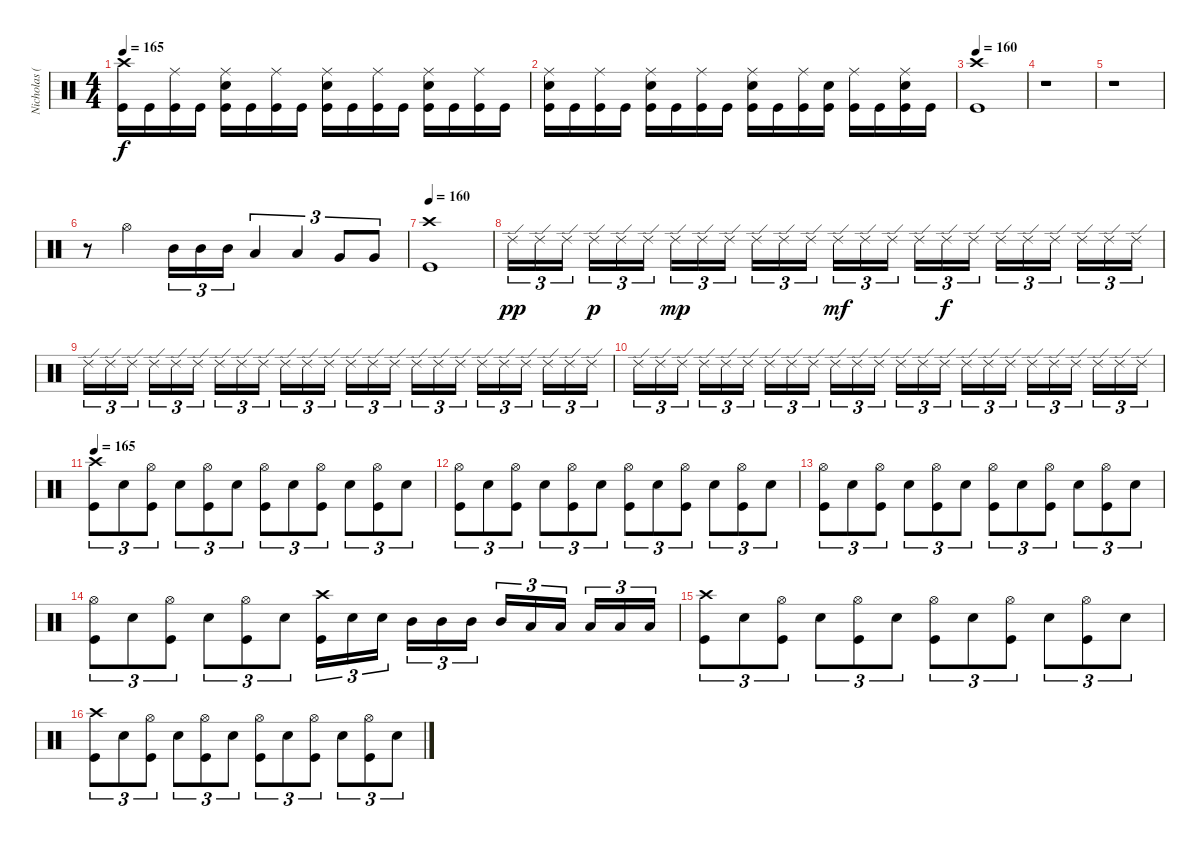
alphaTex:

\track ("Nicholas (Drums)" "Nicholas (") {instrument percussion}
\staff {score}
\articulation defaults
\ts (4 4)
\tempo 165
\clef neutral
\ks c
("Crash high (hit)" "Kick (hit)").16{dy f} "Kick (hit)".16 ("Ride (middle)" "Kick (hit)").16 "Kick (hit)".16 ("Ride (middle)" "Electric Snare (hit)" "Kick (hit)").16 "Kick (hit)".16 ("Ride (middle)" "Kick (hit)").16 "Kick (hit)".16 ("Ride (middle)" "Electric Snare (hit)" "Kick (hit)").16 "Kick (hit)".16 ("Ride (middle)" "Kick (hit)").16 "Kick (hit)".16 ("Ride (middle)" "Electric Snare (hit)" "Kick (hit)").16 "Kick (hit)".16 ("Ride (middle)" "Kick (hit)").16 "Kick (hit)".16 |
("Ride (middle)" "Electric Snare (hit)" "Kick (hit)").16 "Kick (hit)".16 ("Ride (middle)" "Kick (hit)").16 "Kick (hit)".16 ("Ride (middle)" "Electric Snare (hit)" "Kick (hit)").16 "Kick (hit)".16 ("Ride (middle)" "Kick (hit)").16 "Kick (hit)".16 ("Ride (middle)" "Electric Snare (hit)" "Kick (hit)").16 "Kick (hit)".16 ("Ride (middle)" "Kick (hit)").16 ("Electric Snare (hit)" "Kick (hit)").16 ("Ride (middle)" "Kick (hit)").16 "Kick (hit)".16 ("Ride (middle)" "Electric Snare (hit)" "Kick (hit)").16 "Kick (hit)".16 |
\tempo 160
("Crash high (hit)" "Kick (hit)").1 |
r.1 |
r.1 |
r.8 "Hi-Hat (open)".4 "Mid Tom (hit)".16{tu (3 2)} "Mid Tom (hit)".16{tu (3 2)} "Mid Tom (hit)".16{tu (3 2)} "Low Tom (hit)".4{tu (3 2)} "Low Tom (hit)".4{tu (3 2)} "Very Low Tom (hit)".8{tu (3 2)} "Very Low Tom (hit)".8{tu (3 2)} |
\tempo 160
("Crash high (hit)" "Kick (hit)").1 |
"Ride (edge) 2".16{tu (3 2) dy pp} "Ride (edge) 2".16{tu (3 2)} "Ride (edge) 2".16{tu (3 2)} "Ride (edge) 2".16{tu (3 2) dy p} "Ride (edge) 2".16{tu (3 2)} "Ride (edge) 2".16{tu (3 2)} "Ride (edge) 2".16{tu (3 2) dy mp} "Ride (edge) 2".16{tu (3 2)} "Ride (edge) 2".16{tu (3 2)} "Ride (edge) 2".16{tu (3 2)} "Ride (edge) 2".16{tu (3 2)} "Ride (edge) 2".16{tu (3 2)} "Ride (edge) 2".16{tu (3 2) dy mf} "Ride (edge) 2".16{tu (3 2)} "Ride (edge) 2".16{tu (3 2)} "Ride (edge) 2".16{tu (3 2)} "Ride (edge) 2".16{tu (3 2) dy f} "Ride (edge) 2".16{tu (3 2)} "Ride (edge) 2".16{tu (3 2)} "Ride (edge) 2".16{tu (3 2)} "Ride (edge) 2".16{tu (3 2)} "Ride (edge) 2".16{tu (3 2)} "Ride (edge) 2".16{tu (3 2)} "Ride (edge) 2".16{tu (3 2)} |
"Ride (edge) 2".16{tu (3 2)} "Ride (edge) 2".16{tu (3 2)} "Ride (edge) 2".16{tu (3 2)} "Ride (edge) 2".16{tu (3 2)} "Ride (edge) 2".16{tu (3 2)} "Ride (edge) 2".16{tu (3 2)} "Ride (edge) 2".16{tu (3 2)} "Ride (edge) 2".16{tu (3 2)} "Ride (edge) 2".16{tu (3 2)} "Ride (edge) 2".16{tu (3 2)} "Ride (edge) 2".16{tu (3 2)} "Ride (edge) 2".16{tu (3 2)} "Ride (edge) 2".16{tu (3 2)} "Ride (edge) 2".16{tu (3 2)} "Ride (edge) 2".16{tu (3 2)} "Ride (edge) 2".16{tu (3 2)} "Ride (edge) 2".16{tu (3 2)} "Ride (edge) 2".16{tu (3 2)} "Ride (edge) 2".16{tu (3 2)} "Ride (edge) 2".16{tu (3 2)} "Ride (edge) 2".16{tu (3 2)} "Ride (edge) 2".16{tu (3 2)} "Ride (edge) 2".16{tu (3 2)} "Ride (edge) 2".16{tu (3 2)} |
"Ride (edge) 2".16{tu (3 2)} "Ride (edge) 2".16{tu (3 2)} "Ride (edge) 2".16{tu (3 2)} "Ride (edge) 2".16{tu (3 2)} "Ride (edge) 2".16{tu (3 2)} "Ride (edge) 2".16{tu (3 2)} "Ride (edge) 2".16{tu (3 2)} "Ride (edge) 2".16{tu (3 2)} "Ride (edge) 2".16{tu (3 2)} "Ride (edge) 2".16{tu (3 2)} "Ride (edge) 2".16{tu (3 2)} "Ride (edge) 2".16{tu (3 2)} "Ride (edge) 2".16{tu (3 2)} "Ride (edge) 2".16{tu (3 2)} "Ride (edge) 2".16{tu (3 2)} "Ride (edge) 2".16{tu (3 2)} "Ride (edge) 2".16{tu (3 2)} "Ride (edge) 2".16{tu (3 2)} "Ride (edge) 2".16{tu (3 2)} "Ride (edge) 2".16{tu (3 2)} "Ride (edge) 2".16{tu (3 2)} "Ride (edge) 2".16{tu (3 2)} "Ride (edge) 2".16{tu (3 2)} "Ride (edge) 2".16{tu (3 2)} |
\tempo 165
("Crash high (hit)" "Kick (hit)").8{tu (3 2)} "Electric Snare (hit)".8{tu (3 2)} ("Hi-Hat (open)" "Kick (hit)").8{tu (3 2)} "Electric Snare (hit)".8{tu (3 2)} ("Hi-Hat (open)" "Kick (hit)").8{tu (3 2)} "Electric Snare (hit)".8{tu (3 2)} ("Hi-Hat (open)" "Kick (hit)").8{tu (3 2)} "Electric Snare (hit)".8{tu (3 2)} ("Hi-Hat (open)" "Kick (hit)").8{tu (3 2)} "Electric Snare (hit)".8{tu (3 2)} ("Hi-Hat (open)" "Kick (hit)").8{tu (3 2)} "Electric Snare (hit)".8{tu (3 2)} |
("Hi-Hat (open)" "Kick (hit)").8{tu (3 2)} "Electric Snare (hit)".8{tu (3 2)} ("Hi-Hat (open)" "Kick (hit)").8{tu (3 2)} "Electric Snare (hit)".8{tu (3 2)} ("Hi-Hat (open)" "Kick (hit)").8{tu (3 2)} "Electric Snare (hit)".8{tu (3 2)} ("Hi-Hat (open)" "Kick (hit)").8{tu (3 2)} "Electric Snare (hit)".8{tu (3 2)} ("Hi-Hat (open)" "Kick (hit)").8{tu (3 2)} "Electric Snare (hit)".8{tu (3 2)} ("Hi-Hat (open)" "Kick (hit)").8{tu (3 2)} "Electric Snare (hit)".8{tu (3 2)} |
("Hi-Hat (open)" "Kick (hit)").8{tu (3 2)} "Electric Snare (hit)".8{tu (3 2)} ("Hi-Hat (open)" "Kick (hit)").8{tu (3 2)} "Electric Snare (hit)".8{tu (3 2)} ("Hi-Hat (open)" "Kick (hit)").8{tu (3 2)} "Electric Snare (hit)".8{tu (3 2)} ("Hi-Hat (open)" "Kick (hit)").8{tu (3 2)} "Electric Snare (hit)".8{tu (3 2)} ("Hi-Hat (open)" "Kick (hit)").8{tu (3 2)} "Electric Snare (hit)".8{tu (3 2)} ("Hi-Hat (open)" "Kick (hit)").8{tu (3 2)} "Electric Snare (hit)".8{tu (3 2)} |
("Hi-Hat (open)" "Kick (hit)").8{tu (3 2)} "Electric Snare (hit)".8{tu (3 2)} ("Hi-Hat (open)" "Kick (hit)").8{tu (3 2)} "Electric Snare (hit)".8{tu (3 2)} ("Hi-Hat (open)" "Kick (hit)").8{tu (3 2)} "Electric Snare (hit)".8{tu (3 2)} ("Crash high (hit)" "Kick (hit)").16{tu (3 2)} "Electric Snare (hit)".16{tu (3 2)} "Electric Snare (hit)".16{tu (3 2)} "Mid Tom (hit)".16{tu (3 2)} "Mid Tom (hit)".16{tu (3 2)} "Mid Tom (hit)".16{tu (3 2)} "Mid Tom (hit)".16{tu (3 2)} "Low Tom (hit)".16{tu (3 2)} "Low Tom (hit)".16{tu (3 2)} "Low Tom (hit)".16{tu (3 2)} "Low Tom (hit)".16{tu (3 2)} "Low Tom (hit)".16{tu (3 2)} |
("Crash high (hit)" "Kick (hit)").8{tu (3 2)} "Electric Snare (hit)".8{tu (3 2)} ("Hi-Hat (open)" "Kick (hit)").8{tu (3 2)} "Electric Snare (hit)".8{tu (3 2)} ("Hi-Hat (open)" "Kick (hit)").8{tu (3 2)} "Electric Snare (hit)".8{tu (3 2)} ("Hi-Hat (open)" "Kick (hit)").8{tu (3 2)} "Electric Snare (hit)".8{tu (3 2)} ("Hi-Hat (open)" "Kick (hit)").8{tu (3 2)} "Electric Snare (hit)".8{tu (3 2)} ("Hi-Hat (open)" "Kick (hit)").8{tu (3 2)} "Electric Snare (hit)".8{tu (3 2)} |
("Crash high (hit)" "Kick (hit)").8{tu (3 2)} "Electric Snare (hit)".8{tu (3 2)} ("Hi-Hat (open)" "Kick (hit)").8{tu (3 2)} "Electric Snare (hit)".8{tu (3 2)} ("Hi-Hat (open)" "Kick (hit)").8{tu (3 2)} "Electric Snare (hit)".8{tu (3 2)} ("Hi-Hat (open)" "Kick (hit)").8{tu (3 2)} "Electric Snare (hit)".8{tu (3 2)} ("Hi-Hat (open)" "Kick (hit)").8{tu (3 2)} "Electric Snare (hit)".8{tu (3 2)} ("Hi-Hat (open)" "Kick (hit)").8{tu (3 2)} "Electric Snare (hit)".8{tu (3 2)}
